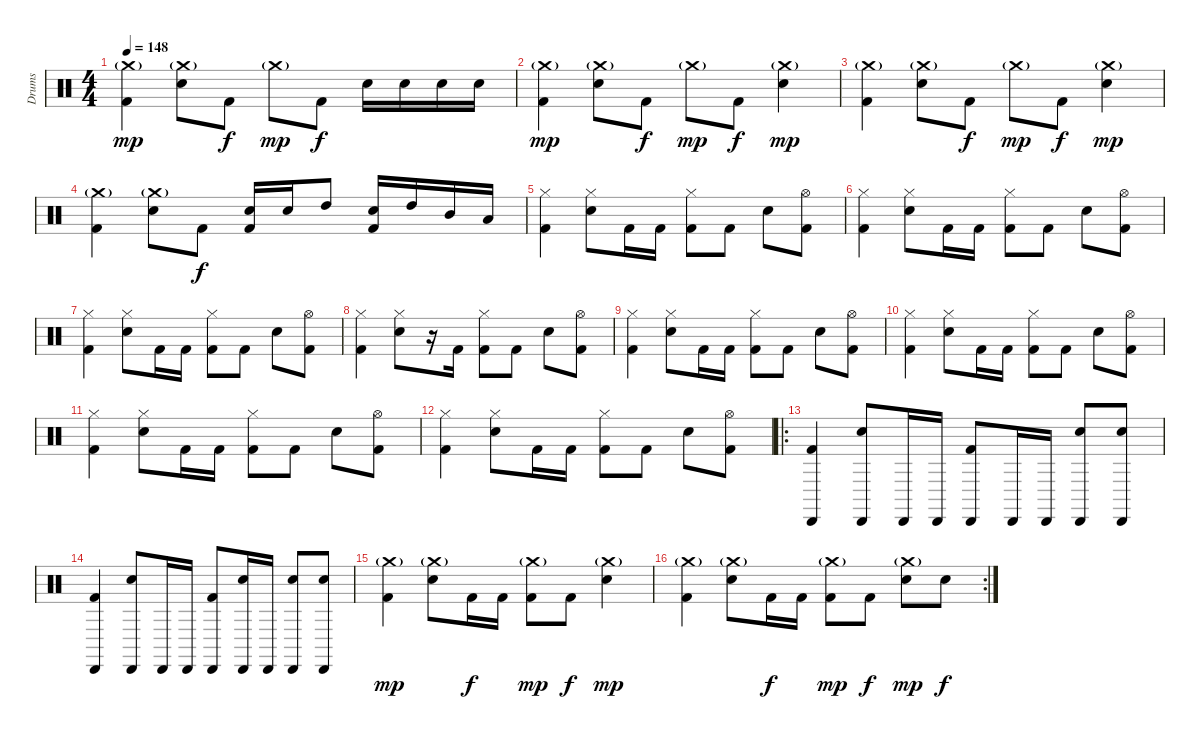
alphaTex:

\track ("Drums" "Drums") {instrument percussion}
\staff {score}
\articulation defaults
\ts (4 4)
\tempo 148
\clef neutral
\ks c
("Crash medium (hit)"{g} "Kick (hit) 2").4{dy mp} ("Crash medium (hit)"{g} "Snare (hit) 2").8 "Kick (hit) 2".8{dy f} "Crash medium (hit)"{g}.8{dy mp} "Kick (hit) 2".8{dy f} "Snare (hit) 2".16 "Snare (hit) 2".16 "Snare (hit) 2".16 "Snare (hit) 2".16 |
("Crash medium (hit)"{g} "Kick (hit) 2").4{dy mp} ("Crash medium (hit)"{g} "Snare (hit) 2").8 "Kick (hit) 2".8{dy f} "Crash medium (hit)"{g}.8{dy mp} "Kick (hit) 2".8{dy f} ("Crash medium (hit)"{g} "Snare (hit) 2").4{dy mp} |
("Crash medium (hit)"{g} "Kick (hit) 2").4 ("Crash medium (hit)"{g} "Snare (hit) 2").8 "Kick (hit) 2".8{dy f} "Crash medium (hit)"{g}.8{dy mp} "Kick (hit) 2".8{dy f} ("Crash medium (hit)"{g} "Snare (hit) 2").4{dy mp} |
("Crash medium (hit)"{g} "Kick (hit) 2").4 ("Crash medium (hit)"{g} "Snare (hit) 2").8 "Kick (hit) 2".8{dy f} ("Snare (hit) 2" "Kick (hit) 2").16 "Snare (hit) 2".16 "High Tom (hit)".8 ("Snare (hit) 2" "Kick (hit) 2").16 "High Tom (hit)".16 "Mid Tom (hit)".16 "Low Tom (hit)".16 |
("Hi-Hat (closed)" "Kick (hit) 2").4 ("Hi-Hat (closed)" "Snare (hit) 2").8 "Kick (hit) 2".16 "Kick (hit) 2".16 ("Hi-Hat (closed)" "Kick (hit) 2").8 "Kick (hit) 2".8 "Snare (hit) 2".8 ("Hi-Hat (open)" "Kick (hit) 2").8 |
("Hi-Hat (closed)" "Kick (hit) 2").4 ("Hi-Hat (closed)" "Snare (hit) 2").8 "Kick (hit) 2".16 "Kick (hit) 2".16 ("Hi-Hat (closed)" "Kick (hit) 2").8 "Kick (hit) 2".8 "Snare (hit) 2".8 ("Hi-Hat (open)" "Kick (hit) 2").8 |
("Hi-Hat (closed)" "Kick (hit) 2").4 ("Hi-Hat (closed)" "Snare (hit) 2").8 "Kick (hit) 2".16 "Kick (hit) 2".16 ("Hi-Hat (closed)" "Kick (hit) 2").8 "Kick (hit) 2".8 "Snare (hit) 2".8 ("Hi-Hat (open)" "Kick (hit) 2").8 |
("Hi-Hat (closed)" "Kick (hit) 2").4 ("Hi-Hat (closed)" "Snare (hit) 2").8 r.16 "Kick (hit) 2".16 ("Hi-Hat (closed)" "Kick (hit) 2").8 "Kick (hit) 2".8 "Snare (hit) 2".8 ("Hi-Hat (open)" "Kick (hit) 2").8 |
("Hi-Hat (closed)" "Kick (hit) 2").4 ("Hi-Hat (closed)" "Snare (hit) 2").8 "Kick (hit) 2".16 "Kick (hit) 2".16 ("Hi-Hat (closed)" "Kick (hit) 2").8 "Kick (hit) 2".8 "Snare (hit) 2".8 ("Hi-Hat (open)" "Kick (hit) 2").8 |
("Hi-Hat (closed)" "Kick (hit) 2").4 ("Hi-Hat (closed)" "Snare (hit) 2").8 "Kick (hit) 2".16 "Kick (hit) 2".16 ("Hi-Hat (closed)" "Kick (hit) 2").8 "Kick (hit) 2".8 "Snare (hit) 2".8 ("Hi-Hat (open)" "Kick (hit) 2").8 |
("Hi-Hat (closed)" "Kick (hit) 2").4 ("Hi-Hat (closed)" "Snare (hit) 2").8 "Kick (hit) 2".16 "Kick (hit) 2".16 ("Hi-Hat (closed)" "Kick (hit) 2").8 "Kick (hit) 2".8 "Snare (hit) 2".8 ("Hi-Hat (open)" "Kick (hit) 2").8 |
("Hi-Hat (closed)" "Kick (hit) 2").4 ("Hi-Hat (closed)" "Snare (hit) 2").8 "Kick (hit) 2".16 "Kick (hit) 2".16 ("Hi-Hat (closed)" "Kick (hit) 2").8 "Kick (hit) 2".8 "Snare (hit) 2".8 ("Hi-Hat (open)" "Kick (hit) 2").8 |
\ro
("Cabasa (hit)" "Kick (hit) 2").4 ("Cabasa (hit)" "Snare (hit) 2").8 "Cabasa (hit)".16 "Cabasa (hit)".16 ("Cabasa (hit)" "Kick (hit) 2").8 "Cabasa (hit)".16 "Cabasa (hit)".16 ("Cabasa (hit)" "Snare (hit) 2").8 ("Cabasa (hit)" "Snare (hit) 2").8 |
("Cabasa (hit)" "Kick (hit) 2").4 ("Cabasa (hit)" "Snare (hit) 2").8 "Cabasa (hit)".16 "Cabasa (hit)".16 ("Cabasa (hit)" "Kick (hit) 2").8 ("Cabasa (hit)" "Snare (hit) 2").16 "Cabasa (hit)".16 ("Cabasa (hit)" "Snare (hit) 2").8 ("Cabasa (hit)" "Snare (hit) 2").8 |
("Crash medium (hit)"{g} "Kick (hit) 2").4{dy mp} ("Crash medium (hit)"{g} "Snare (hit) 2").8 "Kick (hit) 2".16{dy f} "Kick (hit) 2".16 ("Crash medium (hit)"{g} "Kick (hit) 2").8{dy mp} "Kick (hit) 2".8{dy f} ("Crash medium (hit)"{g} "Snare (hit) 2").4{dy mp} |
\rc 2
("Crash medium (hit)"{g} "Kick (hit) 2").4 ("Crash medium (hit)"{g} "Snare (hit) 2").8 "Kick (hit) 2".16{dy f} "Kick (hit) 2".16 ("Crash medium (hit)"{g} "Kick (hit) 2").8{dy mp} "Kick (hit) 2".8{dy f} ("Crash medium (hit)"{g} "Snare (hit) 2").8{dy mp} "Snare (hit) 2".8{dy f}
